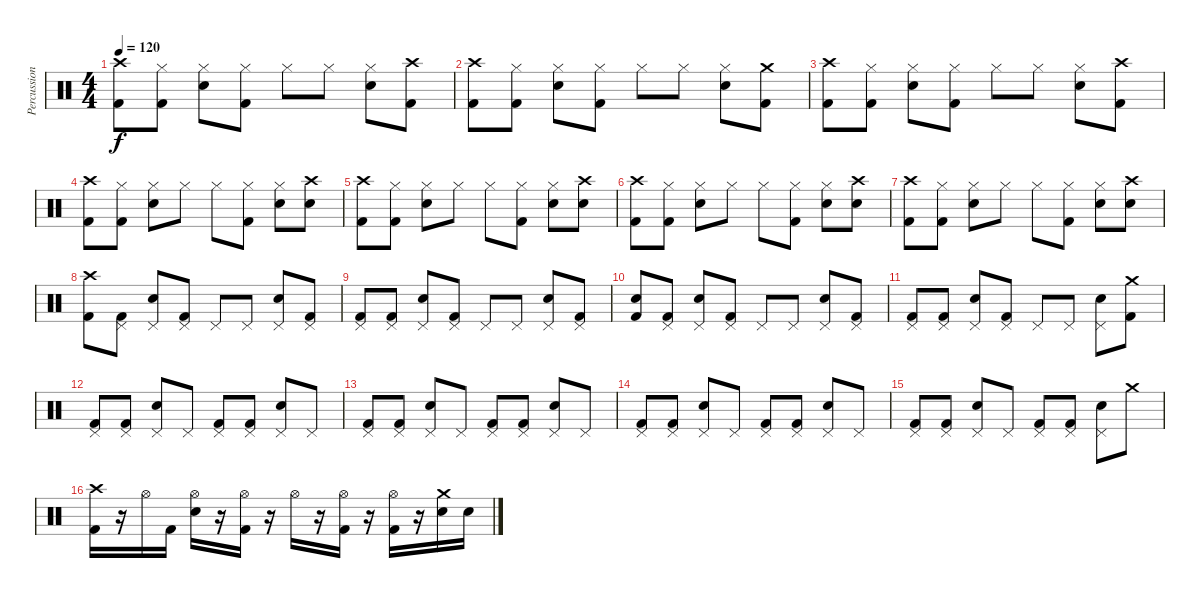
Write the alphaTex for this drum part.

\track ("Percussion" "Percussion") {instrument percussion}
\staff {score}
\articulation defaults
\ts (4 4)
\tempo 120
\clef neutral
\ks c
("Crash high (hit)" "Kick (hit) 2").8{dy f} ("Hi-Hat (closed)" "Kick (hit) 2").8 ("Hi-Hat (closed)" "Snare (hit) 2").8 ("Hi-Hat (closed)" "Kick (hit) 2").8 "Hi-Hat (closed)".8 "Hi-Hat (closed)".8 ("Hi-Hat (closed)" "Snare (hit) 2").8 ("Crash high (hit)" "Kick (hit) 2").8 |
("Crash high (hit)" "Kick (hit) 2").8 ("Hi-Hat (closed)" "Kick (hit) 2").8 ("Hi-Hat (closed)" "Snare (hit) 2").8 ("Hi-Hat (closed)" "Kick (hit) 2").8 "Hi-Hat (closed)".8 "Hi-Hat (closed)".8 ("Hi-Hat (closed)" "Snare (hit) 2").8 ("Crash medium (hit)" "Kick (hit) 2").8 |
("Crash high (hit)" "Kick (hit) 2").8 ("Hi-Hat (closed)" "Kick (hit) 2").8 ("Hi-Hat (closed)" "Snare (hit) 2").8 ("Hi-Hat (closed)" "Kick (hit) 2").8 "Hi-Hat (closed)".8 "Hi-Hat (closed)".8 ("Hi-Hat (closed)" "Snare (hit) 2").8 ("Crash high (hit)" "Kick (hit) 2").8 |
("Crash high (hit)" "Kick (hit) 2").8 ("Hi-Hat (closed)" "Kick (hit) 2").8 ("Hi-Hat (closed)" "Snare (hit) 2").8 "Hi-Hat (closed)".8 "Hi-Hat (closed)".8 ("Hi-Hat (closed)" "Kick (hit) 2").8 ("Hi-Hat (closed)" "Snare (hit) 2").8 ("Crash high (hit)" "Snare (hit) 2").8 |
("Crash high (hit)" "Kick (hit) 2").8 ("Hi-Hat (closed)" "Kick (hit) 2").8 ("Hi-Hat (closed)" "Snare (hit) 2").8 "Hi-Hat (closed)".8 "Hi-Hat (closed)".8 ("Hi-Hat (closed)" "Kick (hit) 2").8 ("Hi-Hat (closed)" "Snare (hit) 2").8 ("Crash high (hit)" "Snare (hit) 2").8 |
("Crash high (hit)" "Kick (hit) 2").8 ("Hi-Hat (closed)" "Kick (hit) 2").8 ("Hi-Hat (closed)" "Snare (hit) 2").8 "Hi-Hat (closed)".8 "Hi-Hat (closed)".8 ("Hi-Hat (closed)" "Kick (hit) 2").8 ("Hi-Hat (closed)" "Snare (hit) 2").8 ("Crash high (hit)" "Snare (hit) 2").8 |
("Crash high (hit)" "Kick (hit) 2").8 ("Hi-Hat (closed)" "Kick (hit) 2").8 ("Hi-Hat (closed)" "Snare (hit) 2").8 "Hi-Hat (closed)".8 "Hi-Hat (closed)".8 ("Hi-Hat (closed)" "Kick (hit) 2").8 ("Hi-Hat (closed)" "Snare (hit) 2").8 ("Crash high (hit)" "Snare (hit) 2").8 |
("Crash high (hit)" "Kick (hit) 2").8 ("Pedal Hi-Hat (hit)" "Kick (hit) 2").8 ("Pedal Hi-Hat (hit)" "Snare (hit) 2").8 ("Pedal Hi-Hat (hit)" "Kick (hit) 2").8 "Pedal Hi-Hat (hit)".8 "Pedal Hi-Hat (hit)".8 ("Pedal Hi-Hat (hit)" "Snare (hit) 2").8 ("Pedal Hi-Hat (hit)" "Kick (hit) 2").8 |
("Pedal Hi-Hat (hit)" "Kick (hit) 2").8 ("Pedal Hi-Hat (hit)" "Kick (hit) 2").8 ("Pedal Hi-Hat (hit)" "Snare (hit) 2").8 ("Pedal Hi-Hat (hit)" "Kick (hit) 2").8 "Pedal Hi-Hat (hit)".8 "Pedal Hi-Hat (hit)".8 ("Pedal Hi-Hat (hit)" "Snare (hit) 2").8 ("Pedal Hi-Hat (hit)" "Kick (hit) 2").8 |
("Snare (hit)" "Kick (hit) 2").8 ("Pedal Hi-Hat (hit)" "Kick (hit) 2").8 ("Pedal Hi-Hat (hit)" "Snare (hit) 2").8 ("Pedal Hi-Hat (hit)" "Kick (hit) 2").8 "Pedal Hi-Hat (hit)".8 "Pedal Hi-Hat (hit)".8 ("Pedal Hi-Hat (hit)" "Snare (hit) 2").8 ("Pedal Hi-Hat (hit)" "Kick (hit) 2").8 |
("Pedal Hi-Hat (hit)" "Kick (hit) 2").8 ("Pedal Hi-Hat (hit)" "Kick (hit) 2").8 ("Pedal Hi-Hat (hit)" "Snare (hit) 2").8 ("Pedal Hi-Hat (hit)" "Kick (hit) 2").8 "Pedal Hi-Hat (hit)".8 "Pedal Hi-Hat (hit)".8 ("Pedal Hi-Hat (hit)" "Snare (hit) 2").8 ("Crash medium (hit)" "Kick (hit) 2").8 |
("Pedal Hi-Hat (hit)" "Kick (hit) 2").8 ("Pedal Hi-Hat (hit)" "Kick (hit) 2").8 ("Pedal Hi-Hat (hit)" "Snare (hit) 2").8 "Pedal Hi-Hat (hit)".8 ("Pedal Hi-Hat (hit)" "Kick (hit) 2").8 ("Pedal Hi-Hat (hit)" "Kick (hit) 2").8 ("Pedal Hi-Hat (hit)" "Snare (hit) 2").8 "Pedal Hi-Hat (hit)".8 |
("Pedal Hi-Hat (hit)" "Kick (hit) 2").8 ("Pedal Hi-Hat (hit)" "Kick (hit) 2").8 ("Pedal Hi-Hat (hit)" "Snare (hit) 2").8 "Pedal Hi-Hat (hit)".8 ("Pedal Hi-Hat (hit)" "Kick (hit) 2").8 ("Pedal Hi-Hat (hit)" "Kick (hit) 2").8 ("Pedal Hi-Hat (hit)" "Snare (hit) 2").8 "Pedal Hi-Hat (hit)".8 |
("Pedal Hi-Hat (hit)" "Kick (hit) 2").8 ("Pedal Hi-Hat (hit)" "Kick (hit) 2").8 ("Pedal Hi-Hat (hit)" "Snare (hit) 2").8 "Pedal Hi-Hat (hit)".8 ("Pedal Hi-Hat (hit)" "Kick (hit) 2").8 ("Pedal Hi-Hat (hit)" "Kick (hit) 2").8 ("Pedal Hi-Hat (hit)" "Snare (hit) 2").8 "Pedal Hi-Hat (hit)".8 |
("Pedal Hi-Hat (hit)" "Kick (hit) 2").8 ("Pedal Hi-Hat (hit)" "Kick (hit) 2").8 ("Pedal Hi-Hat (hit)" "Snare (hit) 2").8 "Pedal Hi-Hat (hit)".8 ("Pedal Hi-Hat (hit)" "Kick (hit) 2").8 ("Pedal Hi-Hat (hit)" "Kick (hit) 2").8 ("Pedal Hi-Hat (hit)" "Snare (hit) 2").8 "Crash medium (hit)".8 |
("Crash high (hit)" "Kick (hit) 2").16 r.16 "Hi-Hat (open)".16 "Kick (hit) 2".16 ("Hi-Hat (open)" "Snare (hit) 2").16 r.16 ("Hi-Hat (open)" "Kick (hit) 2").16 r.16 "Hi-Hat (open)".16 r.16 ("Hi-Hat (open)" "Kick (hit) 2").16 r.16 ("Hi-Hat (open)" "Kick (hit) 2").16 r.16 ("Crash medium (hit)" "Snare (hit) 2").16 "Snare (hit) 2".16
